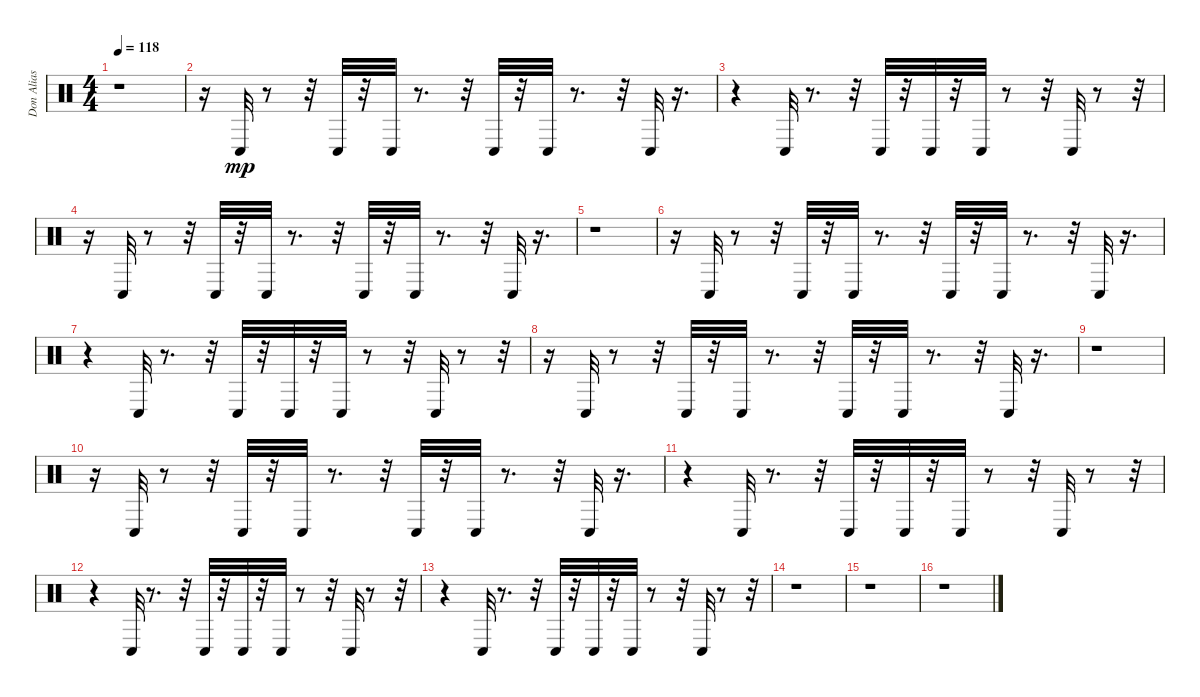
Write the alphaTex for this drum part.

\track ("Don Alias" "Don Alias") {instrument percussion}
\staff {score}
\articulation defaults
\ts (4 4)
\tempo 118
\clef neutral
\ks c
r.1{dy mp} |
r.16 "Conga low (hit)".32 r.8 r.32 "Conga low (hit)".32 r.32 "Conga low (hit)".32 r.8{d} r.32 "Conga low (hit)".32 r.32 "Conga low (hit)".32 r.8{d} r.32 "Conga low (hit)".32 r.16{d} |
r.4 "Conga low (hit)".32 r.8{d} r.32 "Conga low (hit)".32 r.32 "Conga low (hit)".32 r.32 "Conga low (hit)".32 r.8 r.32 "Conga low (hit)".32 r.8 r.32 |
r.16 "Conga low (hit)".32 r.8 r.32 "Conga low (hit)".32 r.32 "Conga low (hit)".32 r.8{d} r.32 "Conga low (hit)".32 r.32 "Conga low (hit)".32 r.8{d} r.32 "Conga low (hit)".32 r.16{d} |
r.1 |
r.16 "Conga low (hit)".32 r.8 r.32 "Conga low (hit)".32 r.32 "Conga low (hit)".32 r.8{d} r.32 "Conga low (hit)".32 r.32 "Conga low (hit)".32 r.8{d} r.32 "Conga low (hit)".32 r.16{d} |
r.4 "Conga low (hit)".32 r.8{d} r.32 "Conga low (hit)".32 r.32 "Conga low (hit)".32 r.32 "Conga low (hit)".32 r.8 r.32 "Conga low (hit)".32 r.8 r.32 |
r.16 "Conga low (hit)".32 r.8 r.32 "Conga low (hit)".32 r.32 "Conga low (hit)".32 r.8{d} r.32 "Conga low (hit)".32 r.32 "Conga low (hit)".32 r.8{d} r.32 "Conga low (hit)".32 r.16{d} |
r.1 |
r.16 "Conga low (hit)".32 r.8 r.32 "Conga low (hit)".32 r.32 "Conga low (hit)".32 r.8{d} r.32 "Conga low (hit)".32 r.32 "Conga low (hit)".32 r.8{d} r.32 "Conga low (hit)".32 r.16{d} |
r.4 "Conga low (hit)".32 r.8{d} r.32 "Conga low (hit)".32 r.32 "Conga low (hit)".32 r.32 "Conga low (hit)".32 r.8 r.32 "Conga low (hit)".32 r.8 r.32 |
r.4 "Conga low (hit)".32 r.8{d} r.32 "Conga low (hit)".32 r.32 "Conga low (hit)".32 r.32 "Conga low (hit)".32 r.8 r.32 "Conga low (hit)".32 r.8 r.32 |
r.4 "Conga low (hit)".32 r.8{d} r.32 "Conga low (hit)".32 r.32 "Conga low (hit)".32 r.32 "Conga low (hit)".32 r.8 r.32 "Conga low (hit)".32 r.8 r.32 |
r.1 |
r.1 |
r.1
